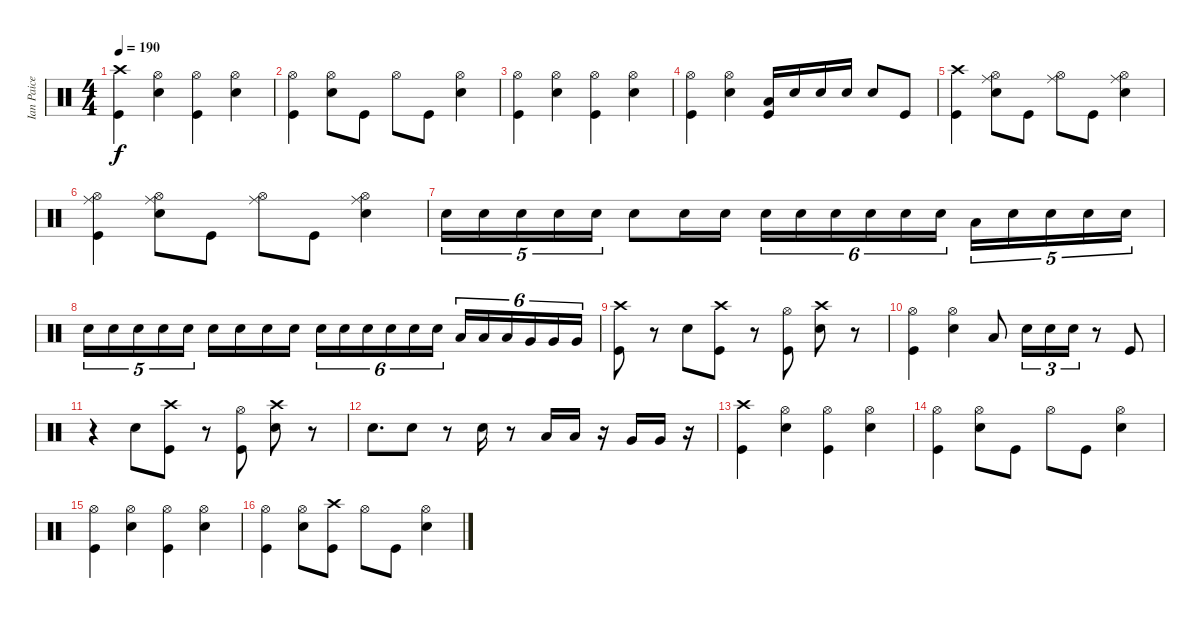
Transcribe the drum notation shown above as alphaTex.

\track ("Ian Paice" "Ian Paice") {instrument percussion}
\staff {score}
\articulation defaults
\ts (4 4)
\tempo 190
\clef neutral
\ks c
("Kick (hit)" "Crash high (hit)").4{dy f} ("Hi-Hat (open)" "Snare (hit) 2").4 ("Hi-Hat (open)" "Kick (hit)").4 ("Snare (hit) 2" "Hi-Hat (open)").4 |
("Hi-Hat (open)" "Kick (hit)").4 ("Hi-Hat (open)" "Snare (hit) 2").8 "Kick (hit)".8 "Hi-Hat (open)".8 "Kick (hit)".8 ("Hi-Hat (open)" "Snare (hit) 2").4 |
("Kick (hit)" "Hi-Hat (open)").4 ("Hi-Hat (open)" "Snare (hit) 2").4 ("Hi-Hat (open)" "Kick (hit)").4 ("Hi-Hat (open)" "Snare (hit) 2").4 |
("Hi-Hat (open)" "Kick (hit)").4 ("Snare (hit) 2" "Hi-Hat (open)").4 ("Low Tom (hit)" "Kick (hit)").16 "Snare (hit) 2".16 "Snare (hit) 2".16 "Snare (hit) 2".16 "Snare (hit) 2".8 "Kick (hit)".8 |
("Crash high (hit)" "Kick (hit)").4 ("Hi-Hat (open)" "Snare (hit) 2" "Ride (middle)").8 "Kick (hit)".8 ("Hi-Hat (open)" "Ride (middle)").8 "Kick (hit)".8 ("Hi-Hat (open)" "Snare (hit) 2" "Ride (middle)").4 |
("Hi-Hat (open)" "Ride (middle)" "Kick (hit)").4 ("Hi-Hat (open)" "Snare (hit) 2" "Ride (middle)").8 "Kick (hit)".8 ("Hi-Hat (open)" "Ride (middle)").8 "Kick (hit)".8 ("Hi-Hat (open)" "Snare (hit) 2" "Ride (middle)").4 |
"Snare (hit) 2".16{tu (5 4)} "Snare (hit) 2".16{tu (5 4)} "Snare (hit) 2".16{tu (5 4)} "Snare (hit) 2".16{tu (5 4)} "Snare (hit) 2".16{tu (5 4)} "Snare (hit) 2".8 "Snare (hit) 2".16 "Snare (hit) 2".16 "Snare (hit) 2".16{tu (6 4)} "Snare (hit) 2".16{tu (6 4)} "Snare (hit) 2".16{tu (6 4)} "Snare (hit) 2".16{tu (6 4)} "Snare (hit) 2".16{tu (6 4)} "Snare (hit) 2".16{tu (6 4)} "Low Tom (hit)".16{tu (5 4)} "Snare (hit) 2".16{tu (5 4)} "Snare (hit) 2".16{tu (5 4)} "Snare (hit) 2".16{tu (5 4)} "Snare (hit) 2".16{tu (5 4)} |
"Snare (hit) 2".16{tu (5 4)} "Snare (hit) 2".16{tu (5 4)} "Snare (hit) 2".16{tu (5 4)} "Snare (hit) 2".16{tu (5 4)} "Snare (hit) 2".16{tu (5 4)} "Snare (hit) 2".16 "Snare (hit) 2".16 "Snare (hit) 2".16 "Snare (hit) 2".16 "Snare (hit) 2".16{tu (6 4)} "Snare (hit) 2".16{tu (6 4)} "Snare (hit) 2".16{tu (6 4)} "Snare (hit) 2".16{tu (6 4)} "Snare (hit) 2".16{tu (6 4)} "Snare (hit) 2".16{tu (6 4)} "Low Tom (hit)".16{tu (6 4)} "Low Tom (hit)".16{tu (6 4)} "Low Tom (hit)".16{tu (6 4)} "Very Low Tom (hit)".16{tu (6 4)} "Very Low Tom (hit)".16{tu (6 4)} "Very Low Tom (hit)".16{tu (6 4)} |
("Kick (hit)" "Crash high (hit)").8 r.8 "Snare (hit) 2".8 ("Kick (hit)" "Crash high (hit)").8 r.8 ("Kick (hit)" "Hi-Hat (open)").8 ("Crash high (hit)" "Snare (hit) 2").8 r.8 |
("Hi-Hat (open)" "Kick (hit)").4 ("Snare (hit) 2" "Hi-Hat (open)").4 "Low Tom (hit)".8 "Snare (hit) 2".16{tu (3 2)} "Snare (hit) 2".16{tu (3 2)} "Snare (hit) 2".16{tu (3 2)} r.8 "Kick (hit)".8 |
r.4 "Snare (hit) 2".8 ("Kick (hit)" "Crash high (hit)").8 r.8 ("Hi-Hat (open)" "Kick (hit)").8 ("Snare (hit) 2" "Crash high (hit)").8 r.8 |
"Snare (hit) 2".8{d} "Snare (hit) 2".8 r.8 "Snare (hit) 2".16 r.8 "Low Tom (hit)".16 "Low Tom (hit)".16 r.16 "Very Low Tom (hit)".16 "Very Low Tom (hit)".16 r.16 |
("Crash high (hit)" "Kick (hit)").4 ("Snare (hit) 2" "Hi-Hat (open)").4 ("Hi-Hat (open)" "Kick (hit)").4 ("Snare (hit) 2" "Hi-Hat (open)").4 |
("Kick (hit)" "Hi-Hat (open)").4 ("Hi-Hat (open)" "Snare (hit) 2").8 "Kick (hit)".8 "Hi-Hat (open)".8 "Kick (hit)".8 ("Hi-Hat (open)" "Snare (hit) 2").4 |
("Hi-Hat (open)" "Kick (hit)").4 ("Snare (hit) 2" "Hi-Hat (open)").4 ("Kick (hit)" "Hi-Hat (open)").4 ("Hi-Hat (open)" "Snare (hit) 2").4 |
("Hi-Hat (open)" "Kick (hit)").4 ("Hi-Hat (open)" "Snare (hit) 2").8 ("Crash high (hit)" "Kick (hit)").8 "Hi-Hat (open)".8 "Kick (hit)".8 ("Hi-Hat (open)" "Snare (hit) 2").4
